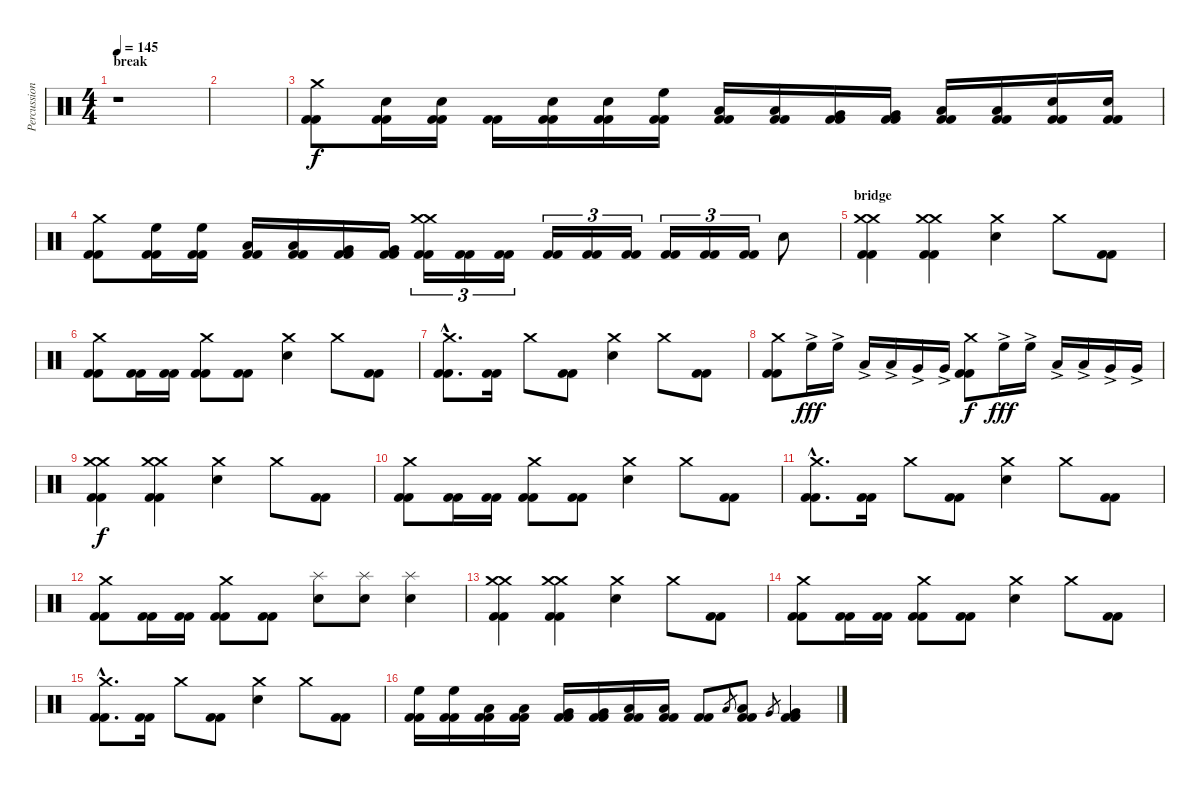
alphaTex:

\track ("Percussion" "Percussion") {instrument percussion}
\staff {score}
\articulation defaults
\ts (4 4)
\section ("" "break")
\tempo 145
\clef neutral
\ks c
r.1{dy f} |
|
("Crash medium (hit)" "Kick (hit) 2" "Kick (hit) 2").8 ("Electric Snare (hit)" "Kick (hit) 2" "Kick (hit) 2").16 ("Electric Snare (hit)" "Kick (hit) 2" "Kick (hit) 2").16 ("Kick (hit) 2" "Kick (hit) 2").16 ("Electric Snare (hit)" "Kick (hit) 2" "Kick (hit) 2").16 ("Electric Snare (hit)" "Kick (hit) 2" "Kick (hit) 2").16 ("High Floor Tom (hit)" "Kick (hit) 2" "Kick (hit) 2").16 ("Low Tom (hit)" "Kick (hit) 2" "Kick (hit) 2").16 ("Low Tom (hit)" "Kick (hit) 2" "Kick (hit) 2").16 ("Very Low Tom (hit)" "Kick (hit) 2" "Kick (hit) 2").16 ("Very Low Tom (hit)" "Kick (hit) 2" "Kick (hit) 2").16 ("Low Tom (hit)" "Kick (hit) 2" "Kick (hit) 2").16 ("Low Tom (hit)" "Kick (hit) 2" "Kick (hit) 2").16 ("Electric Snare (hit)" "Kick (hit) 2" "Kick (hit) 2").16 ("Electric Snare (hit)" "Kick (hit) 2" "Kick (hit) 2").16 |
("Crash medium (hit)" "Kick (hit) 2" "Kick (hit) 2").8 ("High Floor Tom (hit)" "Kick (hit) 2" "Kick (hit) 2").16 ("High Floor Tom (hit)" "Kick (hit) 2" "Kick (hit) 2").16 ("Low Tom (hit)" "Kick (hit) 2" "Kick (hit) 2").16 ("Low Tom (hit)" "Kick (hit) 2" "Kick (hit) 2").16 ("Very Low Tom (hit)" "Kick (hit) 2" "Kick (hit) 2").16 ("Very Low Tom (hit)" "Kick (hit) 2" "Kick (hit) 2").16 ("Crash medium (hit)" "Crash medium (hit)" "Kick (hit) 2" "Kick (hit) 2").16{tu (3 2)} ("Kick (hit) 2" "Kick (hit) 2").16{tu (3 2)} ("Kick (hit) 2" "Kick (hit) 2").16{tu (3 2)} ("Kick (hit) 2" "Kick (hit) 2").16{tu (3 2)} ("Kick (hit) 2" "Kick (hit) 2").16{tu (3 2)} ("Kick (hit) 2" "Kick (hit) 2").16{tu (3 2)} ("Kick (hit) 2" "Kick (hit) 2").16{tu (3 2)} ("Kick (hit) 2" "Kick (hit) 2").16{tu (3 2)} ("Kick (hit) 2" "Kick (hit) 2").16{tu (3 2)} "Electric Snare (hit)".8 |
\section ("" "bridge")
("Crash medium (hit)" "Crash medium (hit)" "Kick (hit) 2" "Kick (hit) 2").4 ("Crash medium (hit)" "Crash medium (hit)" "Kick (hit) 2" "Kick (hit) 2").4 ("Crash medium (hit)" "Electric Snare (hit)").4 "Crash medium (hit)".8 ("Kick (hit) 2" "Kick (hit) 2").8 |
("Crash medium (hit)" "Kick (hit) 2" "Kick (hit) 2").8 ("Kick (hit) 2" "Kick (hit) 2").16 ("Kick (hit) 2" "Kick (hit) 2").16 ("Crash medium (hit)" "Kick (hit) 2" "Kick (hit) 2").8 ("Kick (hit) 2" "Kick (hit) 2").8 ("Crash medium (hit)" "Electric Snare (hit)").4 "Crash medium (hit)".8 ("Kick (hit) 2" "Kick (hit) 2").8 |
("Crash medium (hit)"{hac} "Kick (hit) 2"{hac} "Kick (hit) 2"{hac}).8{d} ("Kick (hit) 2" "Kick (hit) 2").16 "Crash medium (hit)".8 ("Kick (hit) 2" "Kick (hit) 2").8 ("Crash medium (hit)" "Electric Snare (hit)").4 "Crash medium (hit)".8 ("Kick (hit) 2" "Kick (hit) 2").8 |
("Crash medium (hit)" "Kick (hit) 2" "Kick (hit) 2").8 "High Floor Tom (hit)"{ac}.16{dy fff} "High Floor Tom (hit)"{ac}.16 "Low Tom (hit)"{ac}.16 "Low Tom (hit)"{ac}.16 "Very Low Tom (hit)"{ac}.16 "Very Low Tom (hit)"{ac}.16 ("Crash medium (hit)" "Kick (hit) 2" "Kick (hit) 2").8{dy f} "High Floor Tom (hit)"{ac}.16{dy fff} "High Floor Tom (hit)"{ac}.16 "Low Tom (hit)"{ac}.16 "Low Tom (hit)"{ac}.16 "Very Low Tom (hit)"{ac}.16 "Very Low Tom (hit)"{ac}.16 |
("Crash medium (hit)" "Crash medium (hit)" "Kick (hit) 2" "Kick (hit) 2").4{dy f} ("Crash medium (hit)" "Crash medium (hit)" "Kick (hit) 2" "Kick (hit) 2").4 ("Crash medium (hit)" "Electric Snare (hit)").4 "Crash medium (hit)".8 ("Kick (hit) 2" "Kick (hit) 2").8 |
("Crash medium (hit)" "Kick (hit) 2" "Kick (hit) 2").8 ("Kick (hit) 2" "Kick (hit) 2").16 ("Kick (hit) 2" "Kick (hit) 2").16 ("Crash medium (hit)" "Kick (hit) 2" "Kick (hit) 2").8 ("Kick (hit) 2" "Kick (hit) 2").8 ("Crash medium (hit)" "Electric Snare (hit)").4 "Crash medium (hit)".8 ("Kick (hit) 2" "Kick (hit) 2").8 |
("Crash medium (hit)"{hac} "Kick (hit) 2"{hac} "Kick (hit) 2"{hac}).8{d} ("Kick (hit) 2" "Kick (hit) 2").16 "Crash medium (hit)".8 ("Kick (hit) 2" "Kick (hit) 2").8 ("Crash medium (hit)" "Electric Snare (hit)").4 "Crash medium (hit)".8 ("Kick (hit) 2" "Kick (hit) 2").8 |
("Crash medium (hit)" "Kick (hit) 2" "Kick (hit) 2").8 ("Kick (hit) 2" "Kick (hit) 2").16 ("Kick (hit) 2" "Kick (hit) 2").16 ("Crash medium (hit)" "Kick (hit) 2" "Kick (hit) 2").8 ("Kick (hit) 2" "Kick (hit) 2").8 ("Splash (hit)" "Electric Snare (hit)").8 ("Splash (hit)" "Electric Snare (hit)").8 ("Splash (hit)" "Electric Snare (hit)").4 |
("Crash medium (hit)" "Crash medium (hit)" "Kick (hit) 2" "Kick (hit) 2").4 ("Crash medium (hit)" "Crash medium (hit)" "Kick (hit) 2" "Kick (hit) 2").4 ("Crash medium (hit)" "Electric Snare (hit)").4 "Crash medium (hit)".8 ("Kick (hit) 2" "Kick (hit) 2").8 |
("Crash medium (hit)" "Kick (hit) 2" "Kick (hit) 2").8 ("Kick (hit) 2" "Kick (hit) 2").16 ("Kick (hit) 2" "Kick (hit) 2").16 ("Crash medium (hit)" "Kick (hit) 2" "Kick (hit) 2").8 ("Kick (hit) 2" "Kick (hit) 2").8 ("Crash medium (hit)" "Electric Snare (hit)").4 "Crash medium (hit)".8 ("Kick (hit) 2" "Kick (hit) 2").8 |
("Crash medium (hit)"{hac} "Kick (hit) 2"{hac} "Kick (hit) 2"{hac}).8{d} ("Kick (hit) 2" "Kick (hit) 2").16 "Crash medium (hit)".8 ("Kick (hit) 2" "Kick (hit) 2").8 ("Crash medium (hit)" "Electric Snare (hit)").4 "Crash medium (hit)".8 ("Kick (hit) 2" "Kick (hit) 2").8 |
("High Floor Tom (hit)" "Kick (hit) 2" "Kick (hit) 2").16 ("High Floor Tom (hit)" "Kick (hit) 2" "Kick (hit) 2").16 ("Low Tom (hit)" "Kick (hit) 2" "Kick (hit) 2").16 ("Low Tom (hit)" "Kick (hit) 2" "Kick (hit) 2").16 ("Very Low Tom (hit)" "Kick (hit) 2" "Kick (hit) 2").16 ("Very Low Tom (hit)" "Kick (hit) 2" "Kick (hit) 2").16 ("Low Floor Tom (hit)" "Kick (hit) 2" "Kick (hit) 2").16 ("Low Floor Tom (hit)" "Kick (hit) 2" "Kick (hit) 2").16 ("Kick (hit) 2" "Kick (hit) 2").8 "Low Tom (hit)".8{gr} ("Low Tom (hit)" "Kick (hit) 2" "Kick (hit) 2").8 "Very Low Tom (hit)".8{gr} ("Very Low Tom (hit)" "Kick (hit) 2" "Kick (hit) 2").4
